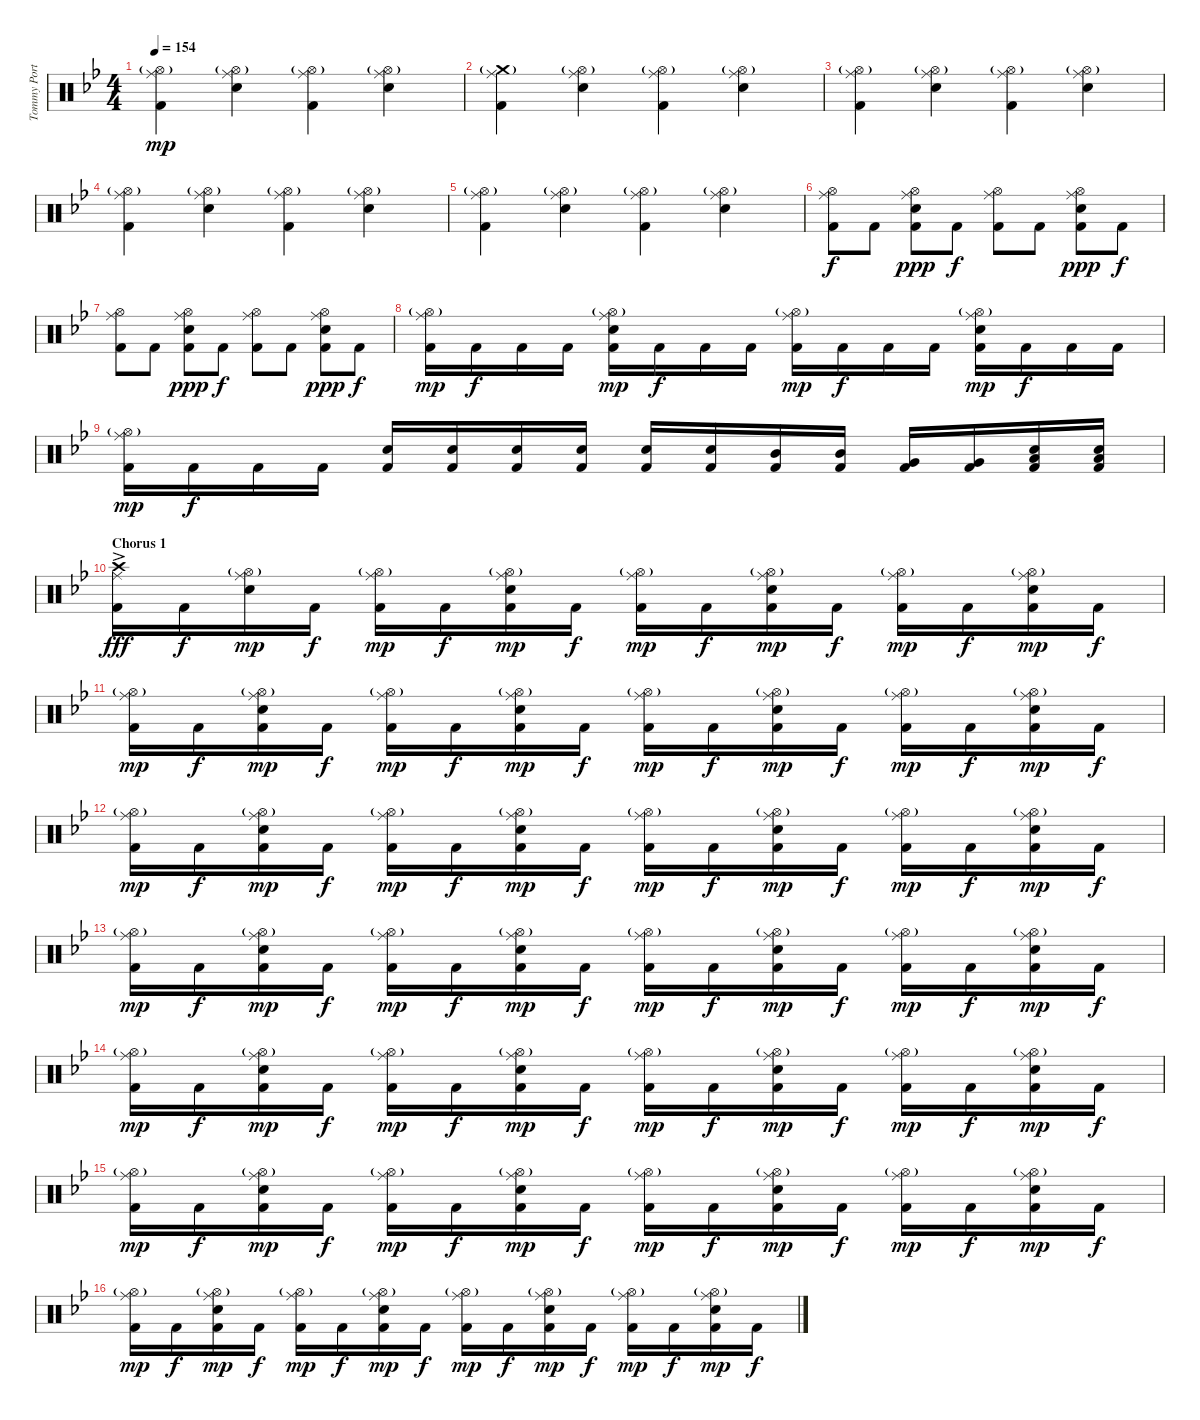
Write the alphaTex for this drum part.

\track ("Tommy Portimo" "Tommy Port") {instrument percussion}
\staff {score}
\articulation defaults
\ts (4 4)
\tempo 154
\clef neutral
\ks gminor
("Hi-Hat (open)"{g} "Ride (middle)" "Kick (hit) 2").4{dy mp} ("Hi-Hat (open)"{g} "Ride (middle)" "Electric Snare (hit)").4 ("Hi-Hat (open)"{g} "Ride (middle)" "Kick (hit) 2").4 ("Hi-Hat (open)"{g} "Ride (middle)" "Electric Snare (hit)").4 |
("Crash medium (hit)"{g} "Ride (middle)" "Kick (hit) 2").4 ("Hi-Hat (open)"{g} "Ride (middle)" "Electric Snare (hit)").4 ("Hi-Hat (open)"{g} "Ride (middle)" "Kick (hit) 2").4 ("Hi-Hat (open)"{g} "Ride (middle)" "Electric Snare (hit)").4 |
("Hi-Hat (open)"{g} "Ride (middle)" "Kick (hit) 2").4 ("Hi-Hat (open)"{g} "Ride (middle)" "Electric Snare (hit)").4 ("Hi-Hat (open)"{g} "Ride (middle)" "Kick (hit) 2").4 ("Hi-Hat (open)"{g} "Ride (middle)" "Electric Snare (hit)").4 |
("Hi-Hat (open)"{g} "Ride (middle)" "Kick (hit) 2").4 ("Hi-Hat (open)"{g} "Ride (middle)" "Electric Snare (hit)").4 ("Hi-Hat (open)"{g} "Ride (middle)" "Kick (hit) 2").4 ("Hi-Hat (open)"{g} "Ride (middle)" "Electric Snare (hit)").4 |
("Hi-Hat (open)"{g} "Ride (middle)" "Kick (hit) 2").4 ("Hi-Hat (open)"{g} "Ride (middle)" "Electric Snare (hit)").4 ("Hi-Hat (open)"{g} "Ride (middle)" "Kick (hit) 2").4 ("Hi-Hat (open)"{g} "Ride (middle)" "Electric Snare (hit)").4 |
("Hi-Hat (open)" "Ride (middle)" "Kick (hit) 2").8{dy f} "Kick (hit) 2".8 ("Hi-Hat (open)" "Ride (middle)" "Electric Snare (hit)" "Kick (hit) 2").8{dy ppp} "Kick (hit) 2".8{dy f} ("Hi-Hat (open)" "Ride (middle)" "Kick (hit) 2").8 "Kick (hit) 2".8 ("Hi-Hat (open)" "Ride (middle)" "Electric Snare (hit)" "Kick (hit) 2").8{dy ppp} "Kick (hit) 2".8{dy f} |
("Hi-Hat (open)" "Ride (middle)" "Kick (hit) 2").8 "Kick (hit) 2".8 ("Hi-Hat (open)" "Ride (middle)" "Electric Snare (hit)" "Kick (hit) 2").8{dy ppp} "Kick (hit) 2".8{dy f} ("Hi-Hat (open)" "Ride (middle)" "Kick (hit) 2").8 "Kick (hit) 2".8 ("Hi-Hat (open)" "Ride (middle)" "Electric Snare (hit)" "Kick (hit) 2").8{dy ppp} "Kick (hit) 2".8{dy f} |
("Hi-Hat (open)"{g} "Ride (middle)" "Kick (hit) 2").16{dy mp} "Kick (hit) 2".16{dy f} "Kick (hit) 2".16 "Kick (hit) 2".16 ("Hi-Hat (open)"{g} "Ride (middle)" "Electric Snare (hit)" "Kick (hit) 2").16{dy mp} "Kick (hit) 2".16{dy f} "Kick (hit) 2".16 "Kick (hit) 2".16 ("Hi-Hat (open)"{g} "Ride (middle)" "Kick (hit) 2").16{dy mp} "Kick (hit) 2".16{dy f} "Kick (hit) 2".16 "Kick (hit) 2".16 ("Hi-Hat (open)"{g} "Ride (middle)" "Electric Snare (hit)" "Kick (hit) 2").16{dy mp} "Kick (hit) 2".16{dy f} "Kick (hit) 2".16 "Kick (hit) 2".16 |
("Hi-Hat (open)"{g} "Ride (middle)" "Kick (hit) 2").16{dy mp} "Kick (hit) 2".16{dy f} "Kick (hit) 2".16 "Kick (hit) 2".16 ("Electric Snare (hit)" "Kick (hit) 2").16 ("Electric Snare (hit)" "Kick (hit) 2").16 ("Electric Snare (hit)" "Kick (hit) 2").16 ("Electric Snare (hit)" "Kick (hit) 2").16 ("Electric Snare (hit)" "Kick (hit) 2").16 ("Electric Snare (hit)" "Kick (hit) 2").16 ("Mid Tom (hit)" "Kick (hit) 2").16 ("Mid Tom (hit)" "Kick (hit) 2").16 ("Very Low Tom (hit)" "Kick (hit) 2").16 ("Very Low Tom (hit)" "Kick (hit) 2").16 ("Low Floor Tom (hit)" "Electric Snare (hit)" "Kick (hit) 2").16 ("Low Floor Tom (hit)" "Electric Snare (hit)" "Kick (hit) 2").16 |
\section ("" "Chorus 1")
("Crash high (hit)"{ac} "Ride (middle)" "Kick (hit) 2").16{dy fff} "Kick (hit) 2".16{dy f} ("Hi-Hat (open)"{g} "Ride (middle)" "Electric Snare (hit)").16{dy mp} "Kick (hit) 2".16{dy f} ("Hi-Hat (open)"{g} "Ride (middle)" "Kick (hit) 2").16{dy mp} "Kick (hit) 2".16{dy f} ("Hi-Hat (open)"{g} "Ride (middle)" "Electric Snare (hit)" "Kick (hit) 2").16{dy mp} "Kick (hit) 2".16{dy f} ("Hi-Hat (open)"{g} "Ride (middle)" "Kick (hit) 2").16{dy mp} "Kick (hit) 2".16{dy f} ("Hi-Hat (open)"{g} "Ride (middle)" "Electric Snare (hit)" "Kick (hit) 2").16{dy mp} "Kick (hit) 2".16{dy f} ("Hi-Hat (open)"{g} "Ride (middle)" "Kick (hit) 2").16{dy mp} "Kick (hit) 2".16{dy f} ("Hi-Hat (open)"{g} "Ride (middle)" "Electric Snare (hit)" "Kick (hit) 2").16{dy mp} "Kick (hit) 2".16{dy f} |
("Hi-Hat (open)"{g} "Ride (middle)" "Kick (hit) 2").16{dy mp} "Kick (hit) 2".16{dy f} ("Hi-Hat (open)"{g} "Ride (middle)" "Electric Snare (hit)" "Kick (hit) 2").16{dy mp} "Kick (hit) 2".16{dy f} ("Hi-Hat (open)"{g} "Ride (middle)" "Kick (hit) 2").16{dy mp} "Kick (hit) 2".16{dy f} ("Hi-Hat (open)"{g} "Ride (middle)" "Electric Snare (hit)" "Kick (hit) 2").16{dy mp} "Kick (hit) 2".16{dy f} ("Hi-Hat (open)"{g} "Ride (middle)" "Kick (hit) 2").16{dy mp} "Kick (hit) 2".16{dy f} ("Hi-Hat (open)"{g} "Ride (middle)" "Electric Snare (hit)" "Kick (hit) 2").16{dy mp} "Kick (hit) 2".16{dy f} ("Hi-Hat (open)"{g} "Ride (middle)" "Kick (hit) 2").16{dy mp} "Kick (hit) 2".16{dy f} ("Hi-Hat (open)"{g} "Ride (middle)" "Electric Snare (hit)" "Kick (hit) 2").16{dy mp} "Kick (hit) 2".16{dy f} |
("Hi-Hat (open)"{g} "Ride (middle)" "Kick (hit) 2").16{dy mp} "Kick (hit) 2".16{dy f} ("Hi-Hat (open)"{g} "Ride (middle)" "Electric Snare (hit)" "Kick (hit) 2").16{dy mp} "Kick (hit) 2".16{dy f} ("Hi-Hat (open)"{g} "Ride (middle)" "Kick (hit) 2").16{dy mp} "Kick (hit) 2".16{dy f} ("Hi-Hat (open)"{g} "Ride (middle)" "Electric Snare (hit)" "Kick (hit) 2").16{dy mp} "Kick (hit) 2".16{dy f} ("Hi-Hat (open)"{g} "Ride (middle)" "Kick (hit) 2").16{dy mp} "Kick (hit) 2".16{dy f} ("Hi-Hat (open)"{g} "Ride (middle)" "Electric Snare (hit)" "Kick (hit) 2").16{dy mp} "Kick (hit) 2".16{dy f} ("Hi-Hat (open)"{g} "Ride (middle)" "Kick (hit) 2").16{dy mp} "Kick (hit) 2".16{dy f} ("Hi-Hat (open)"{g} "Ride (middle)" "Electric Snare (hit)" "Kick (hit) 2").16{dy mp} "Kick (hit) 2".16{dy f} |
("Hi-Hat (open)"{g} "Ride (middle)" "Kick (hit) 2").16{dy mp} "Kick (hit) 2".16{dy f} ("Hi-Hat (open)"{g} "Ride (middle)" "Electric Snare (hit)" "Kick (hit) 2").16{dy mp} "Kick (hit) 2".16{dy f} ("Hi-Hat (open)"{g} "Ride (middle)" "Kick (hit) 2").16{dy mp} "Kick (hit) 2".16{dy f} ("Hi-Hat (open)"{g} "Ride (middle)" "Electric Snare (hit)" "Kick (hit) 2").16{dy mp} "Kick (hit) 2".16{dy f} ("Hi-Hat (open)"{g} "Ride (middle)" "Kick (hit) 2").16{dy mp} "Kick (hit) 2".16{dy f} ("Hi-Hat (open)"{g} "Ride (middle)" "Electric Snare (hit)" "Kick (hit) 2").16{dy mp} "Kick (hit) 2".16{dy f} ("Hi-Hat (open)"{g} "Ride (middle)" "Kick (hit) 2").16{dy mp} "Kick (hit) 2".16{dy f} ("Hi-Hat (open)"{g} "Ride (middle)" "Electric Snare (hit)" "Kick (hit) 2").16{dy mp} "Kick (hit) 2".16{dy f} |
("Hi-Hat (open)"{g} "Ride (middle)" "Kick (hit) 2").16{dy mp} "Kick (hit) 2".16{dy f} ("Hi-Hat (open)"{g} "Ride (middle)" "Electric Snare (hit)" "Kick (hit) 2").16{dy mp} "Kick (hit) 2".16{dy f} ("Hi-Hat (open)"{g} "Ride (middle)" "Kick (hit) 2").16{dy mp} "Kick (hit) 2".16{dy f} ("Hi-Hat (open)"{g} "Ride (middle)" "Electric Snare (hit)" "Kick (hit) 2").16{dy mp} "Kick (hit) 2".16{dy f} ("Hi-Hat (open)"{g} "Ride (middle)" "Kick (hit) 2").16{dy mp} "Kick (hit) 2".16{dy f} ("Hi-Hat (open)"{g} "Ride (middle)" "Electric Snare (hit)" "Kick (hit) 2").16{dy mp} "Kick (hit) 2".16{dy f} ("Hi-Hat (open)"{g} "Ride (middle)" "Kick (hit) 2").16{dy mp} "Kick (hit) 2".16{dy f} ("Hi-Hat (open)"{g} "Ride (middle)" "Electric Snare (hit)" "Kick (hit) 2").16{dy mp} "Kick (hit) 2".16{dy f} |
("Hi-Hat (open)"{g} "Ride (middle)" "Kick (hit) 2").16{dy mp} "Kick (hit) 2".16{dy f} ("Hi-Hat (open)"{g} "Ride (middle)" "Electric Snare (hit)" "Kick (hit) 2").16{dy mp} "Kick (hit) 2".16{dy f} ("Hi-Hat (open)"{g} "Ride (middle)" "Kick (hit) 2").16{dy mp} "Kick (hit) 2".16{dy f} ("Hi-Hat (open)"{g} "Ride (middle)" "Electric Snare (hit)" "Kick (hit) 2").16{dy mp} "Kick (hit) 2".16{dy f} ("Hi-Hat (open)"{g} "Ride (middle)" "Kick (hit) 2").16{dy mp} "Kick (hit) 2".16{dy f} ("Hi-Hat (open)"{g} "Ride (middle)" "Electric Snare (hit)" "Kick (hit) 2").16{dy mp} "Kick (hit) 2".16{dy f} ("Hi-Hat (open)"{g} "Ride (middle)" "Kick (hit) 2").16{dy mp} "Kick (hit) 2".16{dy f} ("Hi-Hat (open)"{g} "Ride (middle)" "Electric Snare (hit)" "Kick (hit) 2").16{dy mp} "Kick (hit) 2".16{dy f} |
("Hi-Hat (open)"{g} "Ride (middle)" "Kick (hit) 2").16{dy mp} "Kick (hit) 2".16{dy f} ("Hi-Hat (open)"{g} "Ride (middle)" "Electric Snare (hit)" "Kick (hit) 2").16{dy mp} "Kick (hit) 2".16{dy f} ("Hi-Hat (open)"{g} "Ride (middle)" "Kick (hit) 2").16{dy mp} "Kick (hit) 2".16{dy f} ("Hi-Hat (open)"{g} "Ride (middle)" "Electric Snare (hit)" "Kick (hit) 2").16{dy mp} "Kick (hit) 2".16{dy f} ("Hi-Hat (open)"{g} "Ride (middle)" "Kick (hit) 2").16{dy mp} "Kick (hit) 2".16{dy f} ("Hi-Hat (open)"{g} "Ride (middle)" "Electric Snare (hit)" "Kick (hit) 2").16{dy mp} "Kick (hit) 2".16{dy f} ("Hi-Hat (open)"{g} "Ride (middle)" "Kick (hit) 2").16{dy mp} "Kick (hit) 2".16{dy f} ("Hi-Hat (open)"{g} "Ride (middle)" "Electric Snare (hit)" "Kick (hit) 2").16{dy mp} "Kick (hit) 2".16{dy f}
